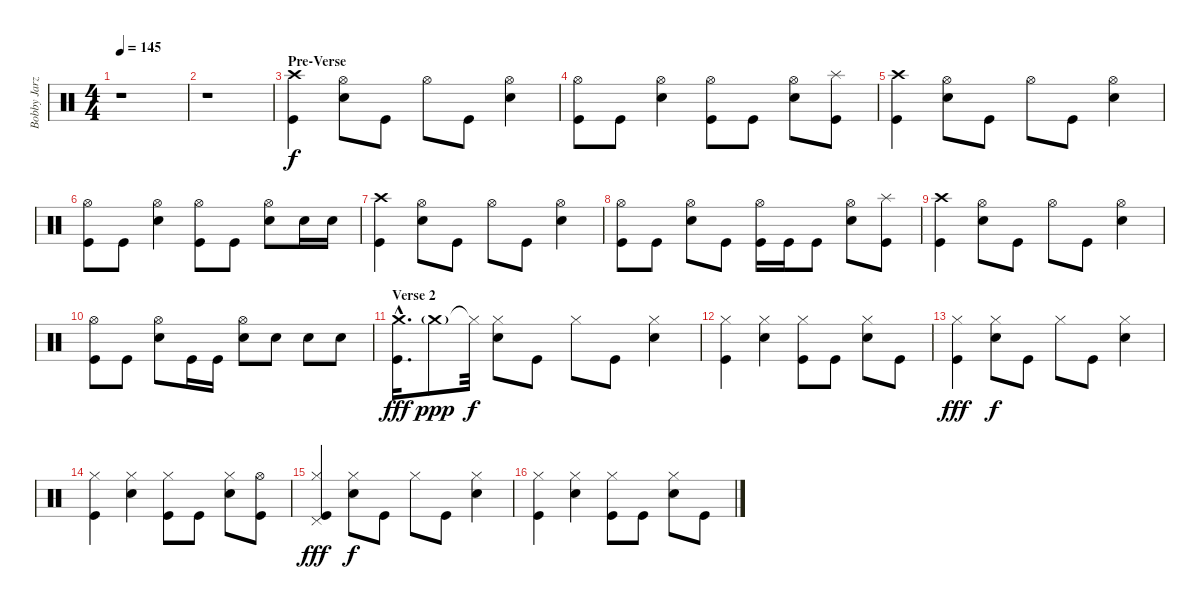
\track ("Bobby Jarzombek" "Bobby Jarz") {instrument percussion}
\staff {score}
\articulation defaults
\ts (4 4)
\tempo 145
\clef neutral
\ks c
r.1{dy f} |
r.1 |
\section ("" "Pre-Verse")
("Crash high (hit)" "Kick (hit)").4 ("Hi-Hat (open)" "Electric Snare (hit)").8 "Kick (hit)".8 "Hi-Hat (open)".8 "Kick (hit)".8 ("Hi-Hat (open)" "Electric Snare (hit)").4 |
("Hi-Hat (open)" "Kick (hit)").8 "Kick (hit)".8 ("Hi-Hat (open)" "Electric Snare (hit)").4 ("Hi-Hat (open)" "Kick (hit)").8 "Kick (hit)".8 ("Hi-Hat (open)" "Electric Snare (hit)").8 ("Splash (hit)" "Kick (hit)").8 |
("Crash high (hit)" "Kick (hit)").4 ("Hi-Hat (open)" "Electric Snare (hit)").8 "Kick (hit)".8 "Hi-Hat (open)".8 "Kick (hit)".8 ("Hi-Hat (open)" "Electric Snare (hit)").4 |
("Hi-Hat (open)" "Kick (hit)").8 "Kick (hit)".8 ("Hi-Hat (open)" "Electric Snare (hit)").4 ("Hi-Hat (open)" "Kick (hit)").8 "Kick (hit)".8 ("Hi-Hat (open)" "Electric Snare (hit)").8 "Electric Snare (hit)".16 "Electric Snare (hit)".16 |
("Crash high (hit)" "Kick (hit)").4 ("Hi-Hat (open)" "Electric Snare (hit)").8 "Kick (hit)".8 "Hi-Hat (open)".8 "Kick (hit)".8 ("Hi-Hat (open)" "Electric Snare (hit)").4 |
("Hi-Hat (open)" "Kick (hit)").8 "Kick (hit)".8 ("Hi-Hat (open)" "Electric Snare (hit)").8 "Kick (hit)".8 ("Hi-Hat (open)" "Kick (hit)").16 "Kick (hit)".16 "Kick (hit)".8 ("Hi-Hat (open)" "Electric Snare (hit)").8 ("Splash (hit)" "Kick (hit)").8 |
("Crash high (hit)" "Kick (hit)").4 ("Hi-Hat (open)" "Electric Snare (hit)").8 "Kick (hit)".8 "Hi-Hat (open)".8 "Kick (hit)".8 ("Hi-Hat (open)" "Electric Snare (hit)").4 |
("Hi-Hat (open)" "Kick (hit)").8 "Kick (hit)".8 ("Hi-Hat (open)" "Electric Snare (hit)").8 "Kick (hit)".16 "Kick (hit)".16 ("Hi-Hat (open)" "Electric Snare (hit)").8 "Electric Snare (hit)".8 "Electric Snare (hit)".8 "Electric Snare (hit)".8 |
\section ("" "Verse 2")
("Crash medium (hit)"{hac} "Kick (hit)"{hac}).16{d dy fff} "Crash medium (hit)"{g}.8{dy ppp} "Hi-Hat (closed)"{t}.32{dy f} ("Hi-Hat (closed)" "Electric Snare (hit)").8 "Kick (hit)".8 "Hi-Hat (closed)".8 "Kick (hit)".8 ("Hi-Hat (closed)" "Electric Snare (hit)").4 |
("Hi-Hat (closed)" "Kick (hit)").4 ("Hi-Hat (closed)" "Electric Snare (hit)").4 ("Hi-Hat (closed)" "Kick (hit)").8 "Kick (hit)".8 ("Hi-Hat (closed)" "Electric Snare (hit)").8 "Kick (hit)".8 |
("Hi-Hat (closed)" "Kick (hit)").4{dy fff} ("Hi-Hat (closed)" "Electric Snare (hit)").8{dy f} "Kick (hit)".8 "Hi-Hat (closed)".8 "Kick (hit)".8 ("Hi-Hat (closed)" "Electric Snare (hit)").4 |
("Hi-Hat (closed)" "Kick (hit)").4 ("Hi-Hat (closed)" "Electric Snare (hit)").4 ("Hi-Hat (closed)" "Kick (hit)").8 "Kick (hit)".8 ("Hi-Hat (closed)" "Electric Snare (hit)").8 ("Hi-Hat (open)" "Kick (hit)").8 |
("Hi-Hat (closed)" "Pedal Hi-Hat (hit)" "Kick (hit)").4{dy fff} ("Hi-Hat (closed)" "Electric Snare (hit)").8{dy f} "Kick (hit)".8 "Hi-Hat (closed)".8 "Kick (hit)".8 ("Hi-Hat (closed)" "Electric Snare (hit)").4 |
("Hi-Hat (closed)" "Kick (hit)").4 ("Hi-Hat (closed)" "Electric Snare (hit)").4 ("Hi-Hat (closed)" "Kick (hit)").8 "Kick (hit)".8 ("Hi-Hat (closed)" "Electric Snare (hit)").8 "Kick (hit)".8
